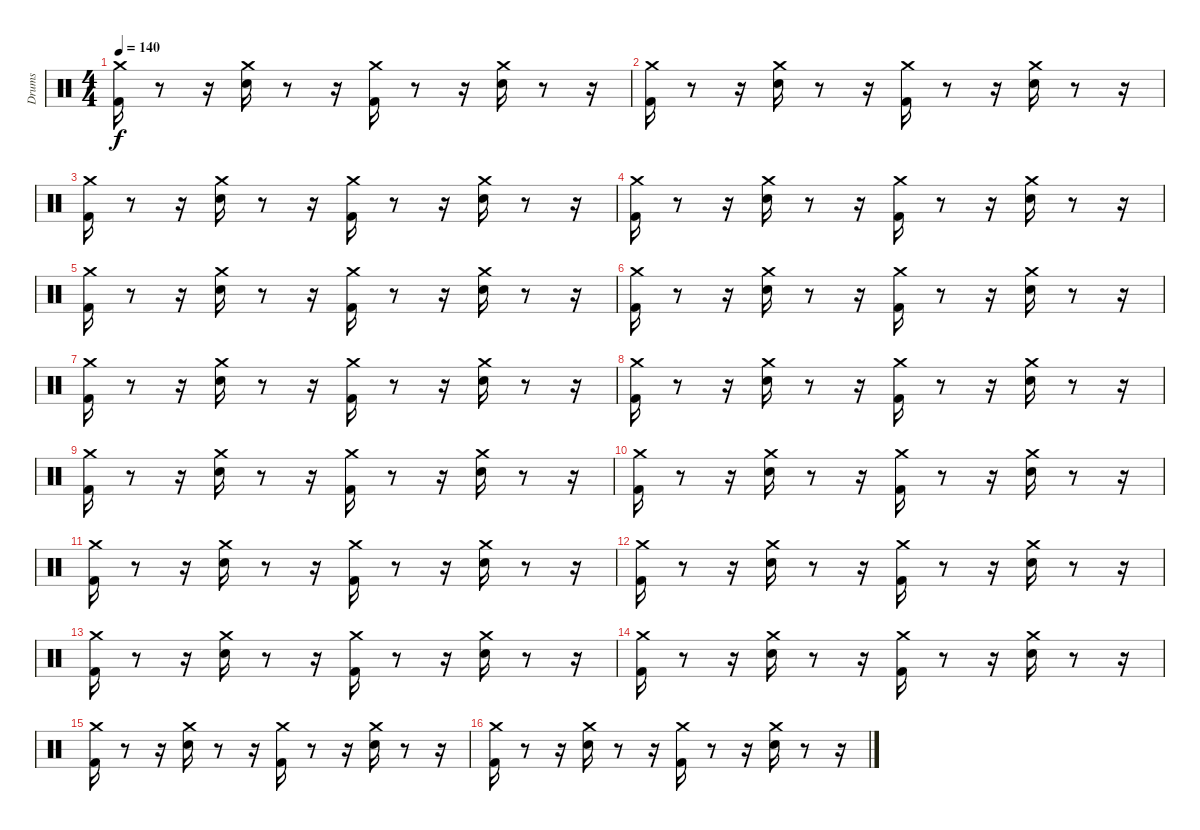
\track ("Drums               " "Drums     ") {instrument percussion}
\staff {score}
\articulation defaults
\ts (4 4)
\tempo 140
\clef neutral
\ks c
("Kick (hit) 2" "Crash medium (hit)").16{dy f} r.8 r.16 ("Electric Snare (hit)" "Crash medium (hit)").16 r.8 r.16 ("Kick (hit) 2" "Crash medium (hit)").16 r.8 r.16 ("Electric Snare (hit)" "Crash medium (hit)").16 r.8 r.16 |
("Kick (hit) 2" "Crash medium (hit)").16 r.8 r.16 ("Electric Snare (hit)" "Crash medium (hit)").16 r.8 r.16 ("Kick (hit) 2" "Crash medium (hit)").16 r.8 r.16 ("Electric Snare (hit)" "Crash medium (hit)").16 r.8 r.16 |
("Kick (hit) 2" "Crash medium (hit)").16 r.8 r.16 ("Electric Snare (hit)" "Crash medium (hit)").16 r.8 r.16 ("Kick (hit) 2" "Crash medium (hit)").16 r.8 r.16 ("Electric Snare (hit)" "Crash medium (hit)").16 r.8 r.16 |
("Kick (hit) 2" "Crash medium (hit)").16 r.8 r.16 ("Electric Snare (hit)" "Crash medium (hit)").16 r.8 r.16 ("Kick (hit) 2" "Crash medium (hit)").16 r.8 r.16 ("Electric Snare (hit)" "Crash medium (hit)").16 r.8 r.16 |
("Kick (hit) 2" "Crash medium (hit)").16 r.8 r.16 ("Electric Snare (hit)" "Crash medium (hit)").16 r.8 r.16 ("Kick (hit) 2" "Crash medium (hit)").16 r.8 r.16 ("Electric Snare (hit)" "Crash medium (hit)").16 r.8 r.16 |
("Kick (hit) 2" "Crash medium (hit)").16 r.8 r.16 ("Electric Snare (hit)" "Crash medium (hit)").16 r.8 r.16 ("Kick (hit) 2" "Crash medium (hit)").16 r.8 r.16 ("Electric Snare (hit)" "Crash medium (hit)").16 r.8 r.16 |
("Kick (hit) 2" "Crash medium (hit)").16 r.8 r.16 ("Electric Snare (hit)" "Crash medium (hit)").16 r.8 r.16 ("Kick (hit) 2" "Crash medium (hit)").16 r.8 r.16 ("Electric Snare (hit)" "Crash medium (hit)").16 r.8 r.16 |
("Kick (hit) 2" "Crash medium (hit)").16 r.8 r.16 ("Electric Snare (hit)" "Crash medium (hit)").16 r.8 r.16 ("Kick (hit) 2" "Crash medium (hit)").16 r.8 r.16 ("Electric Snare (hit)" "Crash medium (hit)").16 r.8 r.16 |
("Kick (hit) 2" "Crash medium (hit)").16 r.8 r.16 ("Electric Snare (hit)" "Crash medium (hit)").16 r.8 r.16 ("Kick (hit) 2" "Crash medium (hit)").16 r.8 r.16 ("Electric Snare (hit)" "Crash medium (hit)").16 r.8 r.16 |
("Kick (hit) 2" "Crash medium (hit)").16 r.8 r.16 ("Electric Snare (hit)" "Crash medium (hit)").16 r.8 r.16 ("Kick (hit) 2" "Crash medium (hit)").16 r.8 r.16 ("Electric Snare (hit)" "Crash medium (hit)").16 r.8 r.16 |
("Kick (hit) 2" "Crash medium (hit)").16 r.8 r.16 ("Electric Snare (hit)" "Crash medium (hit)").16 r.8 r.16 ("Kick (hit) 2" "Crash medium (hit)").16 r.8 r.16 ("Electric Snare (hit)" "Crash medium (hit)").16 r.8 r.16 |
("Kick (hit) 2" "Crash medium (hit)").16 r.8 r.16 ("Electric Snare (hit)" "Crash medium (hit)").16 r.8 r.16 ("Kick (hit) 2" "Crash medium (hit)").16 r.8 r.16 ("Electric Snare (hit)" "Crash medium (hit)").16 r.8 r.16 |
("Kick (hit) 2" "Crash medium (hit)").16 r.8 r.16 ("Electric Snare (hit)" "Crash medium (hit)").16 r.8 r.16 ("Kick (hit) 2" "Crash medium (hit)").16 r.8 r.16 ("Electric Snare (hit)" "Crash medium (hit)").16 r.8 r.16 |
("Kick (hit) 2" "Crash medium (hit)").16 r.8 r.16 ("Electric Snare (hit)" "Crash medium (hit)").16 r.8 r.16 ("Kick (hit) 2" "Crash medium (hit)").16 r.8 r.16 ("Electric Snare (hit)" "Crash medium (hit)").16 r.8 r.16 |
("Kick (hit) 2" "Crash medium (hit)").16 r.8 r.16 ("Electric Snare (hit)" "Crash medium (hit)").16 r.8 r.16 ("Kick (hit) 2" "Crash medium (hit)").16 r.8 r.16 ("Electric Snare (hit)" "Crash medium (hit)").16 r.8 r.16 |
("Kick (hit) 2" "Crash medium (hit)").16 r.8 r.16 ("Electric Snare (hit)" "Crash medium (hit)").16 r.8 r.16 ("Kick (hit) 2" "Crash medium (hit)").16 r.8 r.16 ("Electric Snare (hit)" "Crash medium (hit)").16 r.8 r.16
